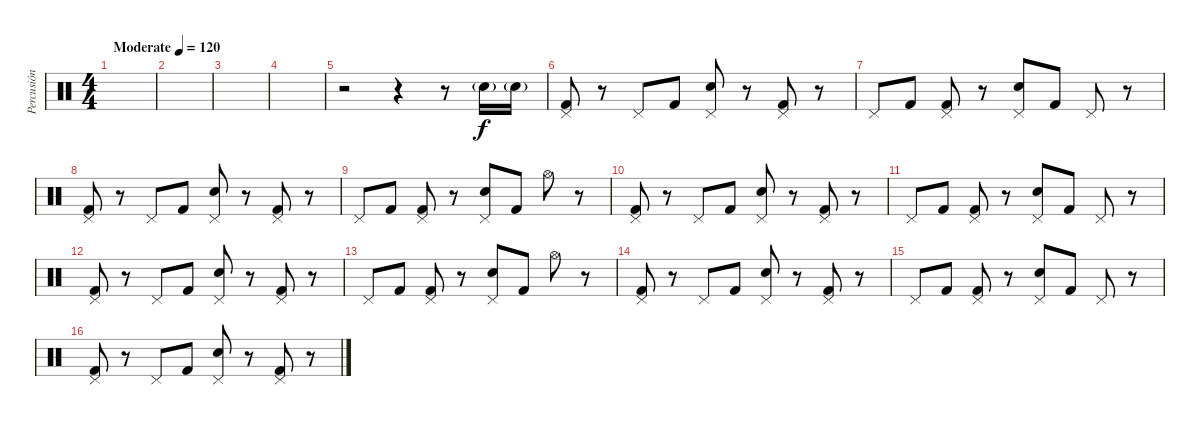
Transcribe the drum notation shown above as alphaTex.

\track ("Percusión" "Percusión") {instrument percussion}
\staff {score}
\articulation defaults
\ts (4 4)
\tempo (120 "Moderate")
\clef neutral
\ks c
|
|
|
|
r.2 r.4 r.8 "Electric Snare (hit)"{g}.16 "Electric Snare (hit)"{g}.16 |
("Pedal Hi-Hat (hit)" "Kick (hit) 2").8{dy f} r.8 "Pedal Hi-Hat (hit)".8 "Kick (hit) 2".8 ("Pedal Hi-Hat (hit)" "Electric Snare (hit)").8 r.8 ("Pedal Hi-Hat (hit)" "Kick (hit) 2").8 r.8 |
"Pedal Hi-Hat (hit)".8 "Kick (hit) 2".8 ("Pedal Hi-Hat (hit)" "Kick (hit) 2").8 r.8 ("Pedal Hi-Hat (hit)" "Electric Snare (hit)").8 "Kick (hit) 2".8 "Pedal Hi-Hat (hit)".8 r.8 |
("Pedal Hi-Hat (hit)" "Kick (hit) 2").8 r.8 "Pedal Hi-Hat (hit)".8 "Kick (hit) 2".8 ("Pedal Hi-Hat (hit)" "Electric Snare (hit)").8 r.8 ("Pedal Hi-Hat (hit)" "Kick (hit) 2").8 r.8 |
"Pedal Hi-Hat (hit)".8 "Kick (hit) 2".8 ("Pedal Hi-Hat (hit)" "Kick (hit) 2").8 r.8 ("Pedal Hi-Hat (hit)" "Electric Snare (hit)").8 "Kick (hit) 2".8 "Hi-Hat (open)".8 r.8 |
("Pedal Hi-Hat (hit)" "Kick (hit) 2").8 r.8 "Pedal Hi-Hat (hit)".8 "Kick (hit) 2".8 ("Pedal Hi-Hat (hit)" "Electric Snare (hit)").8 r.8 ("Pedal Hi-Hat (hit)" "Kick (hit) 2").8 r.8 |
"Pedal Hi-Hat (hit)".8 "Kick (hit) 2".8 ("Pedal Hi-Hat (hit)" "Kick (hit) 2").8 r.8 ("Pedal Hi-Hat (hit)" "Electric Snare (hit)").8 "Kick (hit) 2".8 "Pedal Hi-Hat (hit)".8 r.8 |
("Pedal Hi-Hat (hit)" "Kick (hit) 2").8 r.8 "Pedal Hi-Hat (hit)".8 "Kick (hit) 2".8 ("Pedal Hi-Hat (hit)" "Electric Snare (hit)").8 r.8 ("Pedal Hi-Hat (hit)" "Kick (hit) 2").8 r.8 |
"Pedal Hi-Hat (hit)".8 "Kick (hit) 2".8 ("Pedal Hi-Hat (hit)" "Kick (hit) 2").8 r.8 ("Pedal Hi-Hat (hit)" "Electric Snare (hit)").8 "Kick (hit) 2".8 "Hi-Hat (open)".8 r.8 |
("Pedal Hi-Hat (hit)" "Kick (hit) 2").8 r.8 "Pedal Hi-Hat (hit)".8 "Kick (hit) 2".8 ("Pedal Hi-Hat (hit)" "Electric Snare (hit)").8 r.8 ("Pedal Hi-Hat (hit)" "Kick (hit) 2").8 r.8 |
"Pedal Hi-Hat (hit)".8 "Kick (hit) 2".8 ("Pedal Hi-Hat (hit)" "Kick (hit) 2").8 r.8 ("Pedal Hi-Hat (hit)" "Electric Snare (hit)").8 "Kick (hit) 2".8 "Pedal Hi-Hat (hit)".8 r.8 |
("Pedal Hi-Hat (hit)" "Kick (hit) 2").8 r.8 "Pedal Hi-Hat (hit)".8 "Kick (hit) 2".8 ("Pedal Hi-Hat (hit)" "Electric Snare (hit)").8 r.8 ("Pedal Hi-Hat (hit)" "Kick (hit) 2").8 r.8
